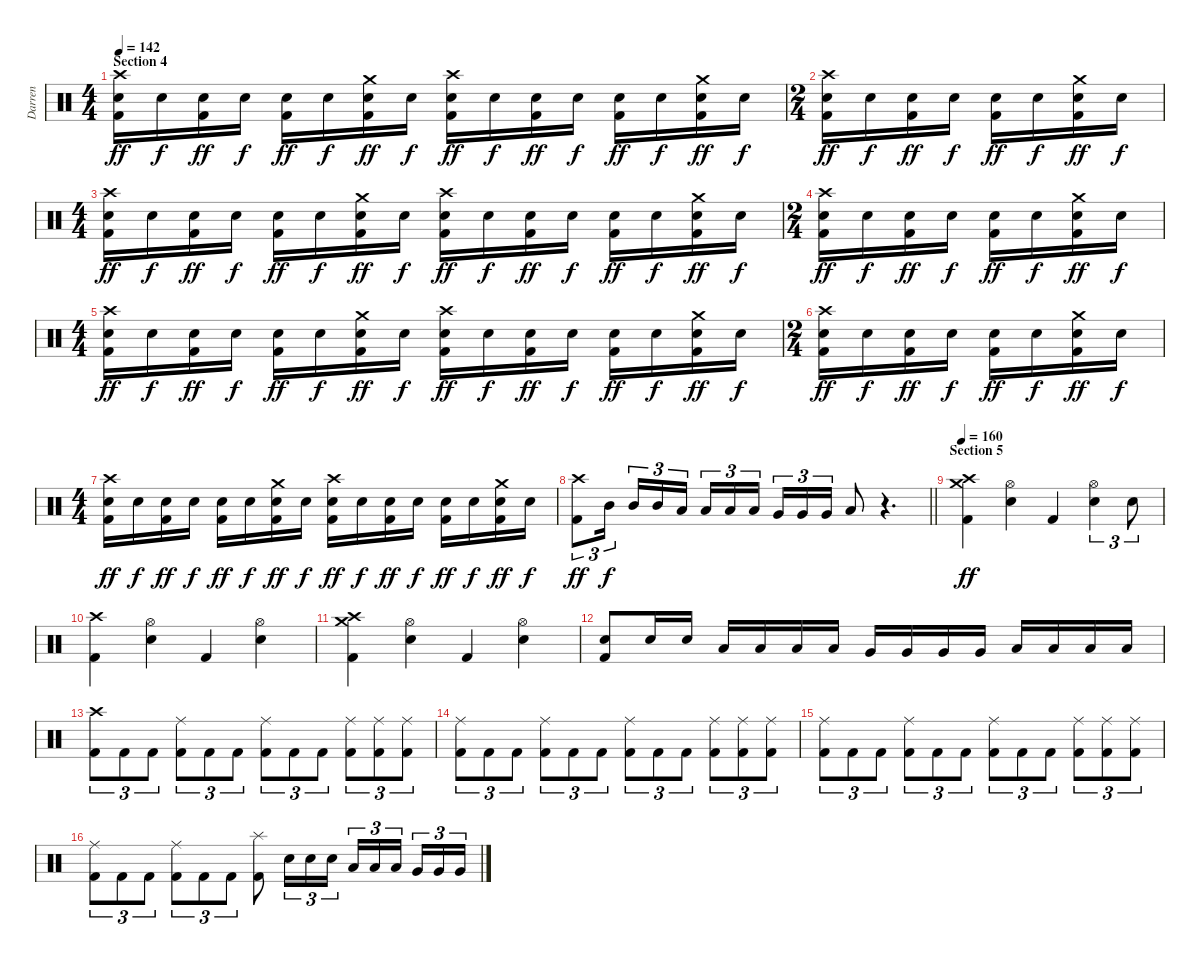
\track ("Darren" "Darren") {instrument percussion}
\staff {score}
\articulation defaults
\ts (4 4)
\section ("" "Section 4")
\tempo 142
\clef neutral
\ks c
("Crash high (hit)" "Electric Snare (hit)" "Kick (hit) 2").16{dy ff} "Electric Snare (hit)".16{dy f} ("Electric Snare (hit)" "Kick (hit) 2").16{dy ff} "Electric Snare (hit)".16{dy f} ("Electric Snare (hit)" "Kick (hit) 2").16{dy ff} "Electric Snare (hit)".16{dy f} ("Crash medium (hit)" "Electric Snare (hit)" "Kick (hit) 2").16{dy ff} "Electric Snare (hit)".16{dy f} ("Crash high (hit)" "Electric Snare (hit)" "Kick (hit) 2").16{dy ff} "Electric Snare (hit)".16{dy f} ("Electric Snare (hit)" "Kick (hit) 2").16{dy ff} "Electric Snare (hit)".16{dy f} ("Electric Snare (hit)" "Kick (hit) 2").16{dy ff} "Electric Snare (hit)".16{dy f} ("Crash medium (hit)" "Electric Snare (hit)" "Kick (hit) 2").16{dy ff} "Electric Snare (hit)".16{dy f} |
\ts (2 4)
("Crash high (hit)" "Electric Snare (hit)" "Kick (hit) 2").16{dy ff} "Electric Snare (hit)".16{dy f} ("Electric Snare (hit)" "Kick (hit) 2").16{dy ff} "Electric Snare (hit)".16{dy f} ("Electric Snare (hit)" "Kick (hit) 2").16{dy ff} "Electric Snare (hit)".16{dy f} ("Crash medium (hit)" "Electric Snare (hit)" "Kick (hit) 2").16{dy ff} "Electric Snare (hit)".16{dy f} |
\ts (4 4)
("Crash high (hit)" "Electric Snare (hit)" "Kick (hit) 2").16{dy ff} "Electric Snare (hit)".16{dy f} ("Electric Snare (hit)" "Kick (hit) 2").16{dy ff} "Electric Snare (hit)".16{dy f} ("Electric Snare (hit)" "Kick (hit) 2").16{dy ff} "Electric Snare (hit)".16{dy f} ("Crash medium (hit)" "Electric Snare (hit)" "Kick (hit) 2").16{dy ff} "Electric Snare (hit)".16{dy f} ("Crash high (hit)" "Electric Snare (hit)" "Kick (hit) 2").16{dy ff} "Electric Snare (hit)".16{dy f} ("Electric Snare (hit)" "Kick (hit) 2").16{dy ff} "Electric Snare (hit)".16{dy f} ("Electric Snare (hit)" "Kick (hit) 2").16{dy ff} "Electric Snare (hit)".16{dy f} ("Crash medium (hit)" "Electric Snare (hit)" "Kick (hit) 2").16{dy ff} "Electric Snare (hit)".16{dy f} |
\ts (2 4)
("Crash high (hit)" "Electric Snare (hit)" "Kick (hit) 2").16{dy ff} "Electric Snare (hit)".16{dy f} ("Electric Snare (hit)" "Kick (hit) 2").16{dy ff} "Electric Snare (hit)".16{dy f} ("Electric Snare (hit)" "Kick (hit) 2").16{dy ff} "Electric Snare (hit)".16{dy f} ("Crash medium (hit)" "Electric Snare (hit)" "Kick (hit) 2").16{dy ff} "Electric Snare (hit)".16{dy f} |
\ts (4 4)
("Crash high (hit)" "Electric Snare (hit)" "Kick (hit) 2").16{dy ff} "Electric Snare (hit)".16{dy f} ("Electric Snare (hit)" "Kick (hit) 2").16{dy ff} "Electric Snare (hit)".16{dy f} ("Electric Snare (hit)" "Kick (hit) 2").16{dy ff} "Electric Snare (hit)".16{dy f} ("Crash medium (hit)" "Electric Snare (hit)" "Kick (hit) 2").16{dy ff} "Electric Snare (hit)".16{dy f} ("Crash high (hit)" "Electric Snare (hit)" "Kick (hit) 2").16{dy ff} "Electric Snare (hit)".16{dy f} ("Electric Snare (hit)" "Kick (hit) 2").16{dy ff} "Electric Snare (hit)".16{dy f} ("Electric Snare (hit)" "Kick (hit) 2").16{dy ff} "Electric Snare (hit)".16{dy f} ("Crash medium (hit)" "Electric Snare (hit)" "Kick (hit) 2").16{dy ff} "Electric Snare (hit)".16{dy f} |
\ts (2 4)
("Crash high (hit)" "Electric Snare (hit)" "Kick (hit) 2").16{dy ff} "Electric Snare (hit)".16{dy f} ("Electric Snare (hit)" "Kick (hit) 2").16{dy ff} "Electric Snare (hit)".16{dy f} ("Electric Snare (hit)" "Kick (hit) 2").16{dy ff} "Electric Snare (hit)".16{dy f} ("Crash medium (hit)" "Electric Snare (hit)" "Kick (hit) 2").16{dy ff} "Electric Snare (hit)".16{dy f} |
\ts (4 4)
("Crash high (hit)" "Electric Snare (hit)" "Kick (hit) 2").16{dy ff} "Electric Snare (hit)".16{dy f} ("Electric Snare (hit)" "Kick (hit) 2").16{dy ff} "Electric Snare (hit)".16{dy f} ("Electric Snare (hit)" "Kick (hit) 2").16{dy ff} "Electric Snare (hit)".16{dy f} ("Crash medium (hit)" "Electric Snare (hit)" "Kick (hit) 2").16{dy ff} "Electric Snare (hit)".16{dy f} ("Crash high (hit)" "Electric Snare (hit)" "Kick (hit) 2").16{dy ff} "Electric Snare (hit)".16{dy f} ("Electric Snare (hit)" "Kick (hit) 2").16{dy ff} "Electric Snare (hit)".16{dy f} ("Electric Snare (hit)" "Kick (hit) 2").16{dy ff} "Electric Snare (hit)".16{dy f} ("Crash medium (hit)" "Electric Snare (hit)" "Kick (hit) 2").16{dy ff} "Electric Snare (hit)".16{dy f} |
\barLineRight lightlight
("Crash high (hit)" "Kick (hit) 2").8{tu (3 2) dy ff} "Mid Tom (hit)".16{tu (3 2) dy f beam splitsecondary} "Mid Tom (hit)".16{tu (3 2)} "Mid Tom (hit)".16{tu (3 2)} "Low Tom (hit)".16{tu (3 2)} "Low Tom (hit)".16{tu (3 2)} "Low Tom (hit)".16{tu (3 2)} "Low Tom (hit)".16{tu (3 2) beam splitsecondary} "Very Low Tom (hit)".16{tu (3 2)} "Very Low Tom (hit)".16{tu (3 2)} "Very Low Tom (hit)".16{tu (3 2)} "Low Floor Tom (hit)".8 r.4{d} |
\section ("" "Section 5")
\tempo 160
("Crash medium (hit)" "Crash high (hit)" "Kick (hit) 2").4{dy ff} ("Hi-Hat (open)" "Electric Snare (hit)").4 "Kick (hit) 2".4 ("Hi-Hat (open)" "Electric Snare (hit)").4{tu (3 2)} "Electric Snare (hit)".8{tu (3 2)} |
("Crash high (hit)" "Kick (hit) 2").4 ("Hi-Hat (open)" "Electric Snare (hit)").4 "Kick (hit) 2".4 ("Hi-Hat (open)" "Electric Snare (hit)").4 |
("Crash medium (hit)" "Crash high (hit)" "Kick (hit) 2").4 ("Hi-Hat (open)" "Electric Snare (hit)").4 "Kick (hit) 2".4 ("Hi-Hat (open)" "Electric Snare (hit)").4 |
("Electric Snare (hit)" "Kick (hit) 2").8 "Electric Snare (hit)".16 "Electric Snare (hit)".16 "Low Tom (hit)".16 "Low Tom (hit)".16 "Low Tom (hit)".16 "Low Tom (hit)".16 "Very Low Tom (hit)".16 "Very Low Tom (hit)".16 "Very Low Tom (hit)".16 "Very Low Tom (hit)".16 "Low Floor Tom (hit)".16 "Low Floor Tom (hit)".16 "Low Floor Tom (hit)".16 "Low Floor Tom (hit)".16 |
("Crash high (hit)" "Kick (hit) 2").8{tu (3 2)} "Kick (hit) 2".8{tu (3 2)} "Kick (hit) 2".8{tu (3 2)} ("Ride (middle)" "Kick (hit) 2").8{tu (3 2)} "Kick (hit) 2".8{tu (3 2)} "Kick (hit) 2".8{tu (3 2)} ("Ride (middle)" "Kick (hit) 2").8{tu (3 2)} "Kick (hit) 2".8{tu (3 2)} "Kick (hit) 2".8{tu (3 2)} ("Ride (middle)" "Kick (hit) 2").8{tu (3 2)} ("Ride (middle)" "Kick (hit) 2").8{tu (3 2)} ("Ride (middle)" "Kick (hit) 2").8{tu (3 2)} |
("Ride (middle)" "Kick (hit) 2").8{tu (3 2)} "Kick (hit) 2".8{tu (3 2)} "Kick (hit) 2".8{tu (3 2)} ("Ride (middle)" "Kick (hit) 2").8{tu (3 2)} "Kick (hit) 2".8{tu (3 2)} "Kick (hit) 2".8{tu (3 2)} ("Ride (middle)" "Kick (hit) 2").8{tu (3 2)} "Kick (hit) 2".8{tu (3 2)} "Kick (hit) 2".8{tu (3 2)} ("Ride (middle)" "Kick (hit) 2").8{tu (3 2)} ("Ride (middle)" "Kick (hit) 2").8{tu (3 2)} ("Ride (middle)" "Kick (hit) 2").8{tu (3 2)} |
("Ride (middle)" "Kick (hit) 2").8{tu (3 2)} "Kick (hit) 2".8{tu (3 2)} "Kick (hit) 2".8{tu (3 2)} ("Ride (middle)" "Kick (hit) 2").8{tu (3 2)} "Kick (hit) 2".8{tu (3 2)} "Kick (hit) 2".8{tu (3 2)} ("Ride (middle)" "Kick (hit) 2").8{tu (3 2)} "Kick (hit) 2".8{tu (3 2)} "Kick (hit) 2".8{tu (3 2)} ("Ride (middle)" "Kick (hit) 2").8{tu (3 2)} ("Ride (middle)" "Kick (hit) 2").8{tu (3 2)} ("Ride (middle)" "Kick (hit) 2").8{tu (3 2)} |
("Ride (middle)" "Kick (hit) 2").8{tu (3 2)} "Kick (hit) 2".8{tu (3 2)} "Kick (hit) 2".8{tu (3 2)} ("Ride (middle)" "Kick (hit) 2").8{tu (3 2)} "Kick (hit) 2".8{tu (3 2)} "Kick (hit) 2".8{tu (3 2)} ("Splash (hit)" "Kick (hit) 2").8 "Electric Snare (hit)".16{tu (3 2)} "Electric Snare (hit)".16{tu (3 2)} "Electric Snare (hit)".16{tu (3 2)} "Low Tom (hit)".16{tu (3 2)} "Low Tom (hit)".16{tu (3 2)} "Low Tom (hit)".16{tu (3 2) beam splitsecondary} "Very Low Tom (hit)".16{tu (3 2)} "Very Low Tom (hit)".16{tu (3 2)} "Very Low Tom (hit)".16{tu (3 2)}
